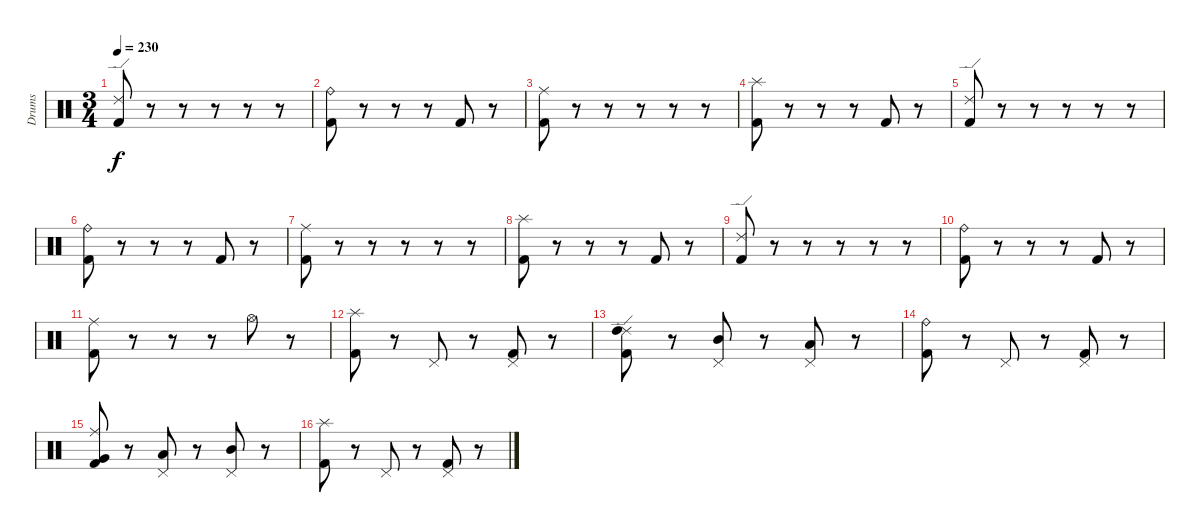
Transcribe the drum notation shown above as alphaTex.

\track ("Drums" "Drums") {instrument percussion}
\staff {score}
\articulation defaults
\ts (3 4)
\tempo 230
\clef neutral
\ks c
("Ride (edge) 2" "Kick (hit) 2").8{dy f} r.8 r.8 r.8 r.8 r.8 |
("Ride (bell)" "Kick (hit) 2").8 r.8 r.8 r.8 "Kick (hit) 2".8 r.8 |
("Ride (middle)" "Kick (hit) 2").8 r.8 r.8 r.8 r.8 r.8 |
("Splash (hit)" "Kick (hit) 2").8 r.8 r.8 r.8 "Kick (hit) 2".8 r.8 |
("Ride (edge) 2" "Kick (hit) 2").8 r.8 r.8 r.8 r.8 r.8 |
("Ride (bell)" "Kick (hit) 2").8 r.8 r.8 r.8 "Kick (hit) 2".8 r.8 |
("Ride (middle)" "Kick (hit) 2").8 r.8 r.8 r.8 r.8 r.8 |
("Splash (hit)" "Kick (hit) 2").8 r.8 r.8 r.8 "Kick (hit) 2".8 r.8 |
("Ride (edge) 2" "Kick (hit) 2").8 r.8 r.8 r.8 r.8 r.8 |
("Ride (bell)" "Kick (hit) 2").8 r.8 r.8 r.8 "Kick (hit) 2".8 r.8 |
("Ride (middle)" "Kick (hit) 2").8 r.8 r.8 r.8 "Hi-Hat (open)".8 r.8 |
("Splash (hit)" "Kick (hit) 2").8 r.8 "Pedal Hi-Hat (hit)".8 r.8 ("Pedal Hi-Hat (hit)" "Kick (hit) 2").8 r.8 |
("Ride (edge) 2" "High Tom (hit)" "Kick (hit) 2").8 r.8 ("Mid Tom (hit)" "Pedal Hi-Hat (hit)").8 r.8 ("Pedal Hi-Hat (hit)" "Low Tom (hit)").8 r.8 |
("Ride (bell)" "Kick (hit) 2").8 r.8 "Pedal Hi-Hat (hit)".8 r.8 ("Pedal Hi-Hat (hit)" "Kick (hit) 2").8 r.8 |
("Ride (middle)" "Very Low Tom (hit)" "Kick (hit) 2").8 r.8 ("Pedal Hi-Hat (hit)" "Low Tom (hit)").8 r.8 ("Mid Tom (hit)" "Pedal Hi-Hat (hit)").8 r.8 |
("Splash (hit)" "Kick (hit) 2").8 r.8 "Pedal Hi-Hat (hit)".8 r.8 ("Pedal Hi-Hat (hit)" "Kick (hit) 2").8 r.8
